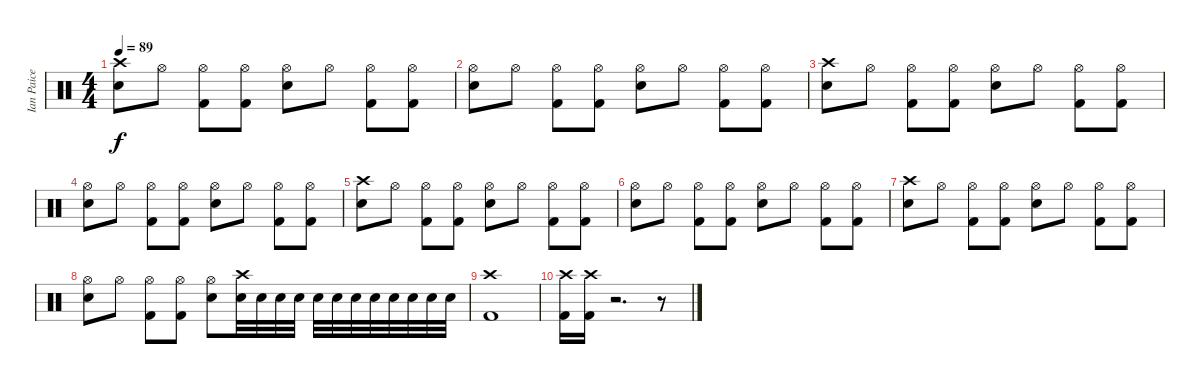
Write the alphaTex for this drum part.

\track ("Ian Paice" "Ian Paice") {instrument percussion}
\staff {score}
\articulation defaults
\ts (4 4)
\tempo 89
\clef neutral
\ks c
("Crash high (hit)" "Electric Snare (hit)").8{dy f} "Hi-Hat (open)".8 ("Hi-Hat (open)" "Kick (hit) 2").8 ("Hi-Hat (open)" "Kick (hit) 2").8 ("Hi-Hat (open)" "Electric Snare (hit)").8 "Hi-Hat (open)".8 ("Hi-Hat (open)" "Kick (hit) 2").8 ("Hi-Hat (open)" "Kick (hit) 2").8 |
("Hi-Hat (open)" "Electric Snare (hit)").8 "Hi-Hat (open)".8 ("Hi-Hat (open)" "Kick (hit) 2").8 ("Hi-Hat (open)" "Kick (hit) 2").8 ("Hi-Hat (open)" "Electric Snare (hit)").8 "Hi-Hat (open)".8 ("Hi-Hat (open)" "Kick (hit) 2").8 ("Hi-Hat (open)" "Kick (hit) 2").8 |
("Crash high (hit)" "Electric Snare (hit)").8 "Hi-Hat (open)".8 ("Hi-Hat (open)" "Kick (hit) 2").8 ("Hi-Hat (open)" "Kick (hit) 2").8 ("Hi-Hat (open)" "Electric Snare (hit)").8 "Hi-Hat (open)".8 ("Hi-Hat (open)" "Kick (hit) 2").8 ("Hi-Hat (open)" "Kick (hit) 2").8 |
("Hi-Hat (open)" "Electric Snare (hit)").8 "Hi-Hat (open)".8 ("Hi-Hat (open)" "Kick (hit) 2").8 ("Hi-Hat (open)" "Kick (hit) 2").8 ("Hi-Hat (open)" "Electric Snare (hit)").8 "Hi-Hat (open)".8 ("Hi-Hat (open)" "Kick (hit) 2").8 ("Hi-Hat (open)" "Kick (hit) 2").8 |
("Crash high (hit)" "Electric Snare (hit)").8 "Hi-Hat (open)".8 ("Hi-Hat (open)" "Kick (hit) 2").8 ("Hi-Hat (open)" "Kick (hit) 2").8 ("Hi-Hat (open)" "Electric Snare (hit)").8 "Hi-Hat (open)".8 ("Hi-Hat (open)" "Kick (hit) 2").8 ("Hi-Hat (open)" "Kick (hit) 2").8 |
("Hi-Hat (open)" "Electric Snare (hit)").8 "Hi-Hat (open)".8 ("Hi-Hat (open)" "Kick (hit) 2").8 ("Hi-Hat (open)" "Kick (hit) 2").8 ("Hi-Hat (open)" "Electric Snare (hit)").8 "Hi-Hat (open)".8 ("Hi-Hat (open)" "Kick (hit) 2").8 ("Hi-Hat (open)" "Kick (hit) 2").8 |
("Crash high (hit)" "Electric Snare (hit)").8 "Hi-Hat (open)".8 ("Hi-Hat (open)" "Kick (hit) 2").8 ("Hi-Hat (open)" "Kick (hit) 2").8 ("Hi-Hat (open)" "Electric Snare (hit)").8 "Hi-Hat (open)".8 ("Hi-Hat (open)" "Kick (hit) 2").8 ("Hi-Hat (open)" "Kick (hit) 2").8 |
("Hi-Hat (open)" "Electric Snare (hit)").8 "Hi-Hat (open)".8 ("Hi-Hat (open)" "Kick (hit) 2").8 ("Hi-Hat (open)" "Kick (hit) 2").8 ("Hi-Hat (open)" "Electric Snare (hit)").8 ("Crash high (hit)" "Electric Snare (hit)").32 "Electric Snare (hit)".32 "Electric Snare (hit)".32 "Electric Snare (hit)".32 "Electric Snare (hit)".32 "Electric Snare (hit)".32 "Electric Snare (hit)".32 "Electric Snare (hit)".32 "Electric Snare (hit)".32 "Electric Snare (hit)".32 "Electric Snare (hit)".32 "Electric Snare (hit)".32 |
("Crash high (hit)" "Kick (hit) 2").1 |
("Crash high (hit)" "Kick (hit) 2").16 ("Crash high (hit)" "Kick (hit) 2").16 r.2{d} r.8
